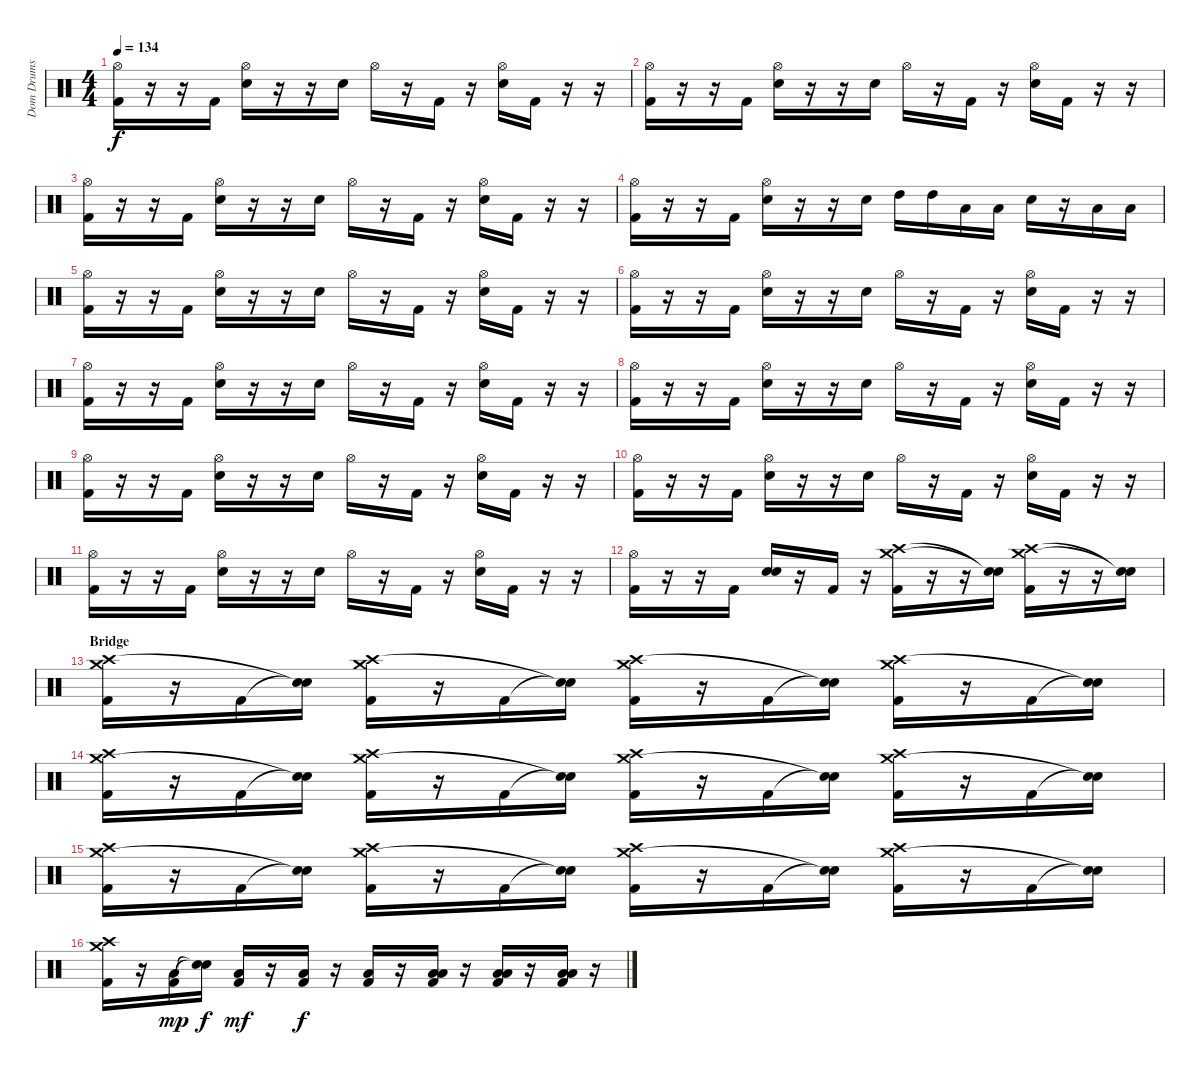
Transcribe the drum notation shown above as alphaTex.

\track ("Dom Drums" "Dom Drums") {instrument percussion}
\staff {score}
\articulation defaults
\ts (4 4)
\tempo 134
\clef neutral
\ks c
("Hi-Hat (open)" "Kick (hit) 2").16{dy f} r.16 r.16 "Kick (hit) 2".16 ("Hi-Hat (open)" "Electric Snare (hit)").16 r.16 r.16 "Electric Snare (hit)".16 "Hi-Hat (open)".16 r.16 "Kick (hit) 2".16 r.16 ("Hi-Hat (open)" "Electric Snare (hit)").16 "Kick (hit) 2".16 r.16 r.16 |
("Hi-Hat (open)" "Kick (hit) 2").16 r.16 r.16 "Kick (hit) 2".16 ("Hi-Hat (open)" "Electric Snare (hit)").16 r.16 r.16 "Electric Snare (hit)".16 "Hi-Hat (open)".16 r.16 "Kick (hit) 2".16 r.16 ("Hi-Hat (open)" "Electric Snare (hit)").16 "Kick (hit) 2".16 r.16 r.16 |
("Hi-Hat (open)" "Kick (hit) 2").16 r.16 r.16 "Kick (hit) 2".16 ("Hi-Hat (open)" "Electric Snare (hit)").16 r.16 r.16 "Electric Snare (hit)".16 "Hi-Hat (open)".16 r.16 "Kick (hit) 2".16 r.16 ("Hi-Hat (open)" "Electric Snare (hit)").16 "Kick (hit) 2".16 r.16 r.16 |
("Hi-Hat (open)" "Kick (hit) 2").16 r.16 r.16 "Kick (hit) 2".16 ("Hi-Hat (open)" "Electric Snare (hit)").16 r.16 r.16 "Electric Snare (hit)".16 "High Tom (hit)".16 "High Tom (hit)".16 "Low Tom (hit)".16 "Low Tom (hit)".16 "Electric Snare (hit)".16 r.16 "Low Tom (hit)".16 "Low Tom (hit)".16 |
("Hi-Hat (open)" "Kick (hit) 2").16 r.16 r.16 "Kick (hit) 2".16 ("Hi-Hat (open)" "Electric Snare (hit)").16 r.16 r.16 "Electric Snare (hit)".16 "Hi-Hat (open)".16 r.16 "Kick (hit) 2".16 r.16 ("Hi-Hat (open)" "Electric Snare (hit)").16 "Kick (hit) 2".16 r.16 r.16 |
("Hi-Hat (open)" "Kick (hit) 2").16 r.16 r.16 "Kick (hit) 2".16 ("Hi-Hat (open)" "Electric Snare (hit)").16 r.16 r.16 "Electric Snare (hit)".16 "Hi-Hat (open)".16 r.16 "Kick (hit) 2".16 r.16 ("Hi-Hat (open)" "Electric Snare (hit)").16 "Kick (hit) 2".16 r.16 r.16 |
("Hi-Hat (open)" "Kick (hit) 2").16 r.16 r.16 "Kick (hit) 2".16 ("Hi-Hat (open)" "Electric Snare (hit)").16 r.16 r.16 "Electric Snare (hit)".16 "Hi-Hat (open)".16 r.16 "Kick (hit) 2".16 r.16 ("Hi-Hat (open)" "Electric Snare (hit)").16 "Kick (hit) 2".16 r.16 r.16 |
("Hi-Hat (open)" "Kick (hit) 2").16 r.16 r.16 "Kick (hit) 2".16 ("Hi-Hat (open)" "Electric Snare (hit)").16 r.16 r.16 "Electric Snare (hit)".16 "Hi-Hat (open)".16 r.16 "Kick (hit) 2".16 r.16 ("Hi-Hat (open)" "Electric Snare (hit)").16 "Kick (hit) 2".16 r.16 r.16 |
("Hi-Hat (open)" "Kick (hit) 2").16 r.16 r.16 "Kick (hit) 2".16 ("Hi-Hat (open)" "Electric Snare (hit)").16 r.16 r.16 "Electric Snare (hit)".16 "Hi-Hat (open)".16 r.16 "Kick (hit) 2".16 r.16 ("Hi-Hat (open)" "Electric Snare (hit)").16 "Kick (hit) 2".16 r.16 r.16 |
("Hi-Hat (open)" "Kick (hit) 2").16 r.16 r.16 "Kick (hit) 2".16 ("Hi-Hat (open)" "Electric Snare (hit)").16 r.16 r.16 "Electric Snare (hit)".16 "Hi-Hat (open)".16 r.16 "Kick (hit) 2".16 r.16 ("Hi-Hat (open)" "Electric Snare (hit)").16 "Kick (hit) 2".16 r.16 r.16 |
("Hi-Hat (open)" "Kick (hit) 2").16 r.16 r.16 "Kick (hit) 2".16 ("Hi-Hat (open)" "Electric Snare (hit)").16 r.16 r.16 "Electric Snare (hit)".16 "Hi-Hat (open)".16 r.16 "Kick (hit) 2".16 r.16 ("Hi-Hat (open)" "Electric Snare (hit)").16 "Kick (hit) 2".16 r.16 r.16 |
("Hi-Hat (open)" "Kick (hit) 2").16 r.16 r.16 "Kick (hit) 2".16 ("Electric Snare (hit)" "Electric Snare (hit)").16 r.16 "Kick (hit) 2".16 r.16 ("Crash medium (hit)" "Crash high (hit)" "Kick (hit) 2").16 r.16 r.16 ("Snare (hit)"{t} "Snare (hit)"{t}).16 ("Crash medium (hit)" "Crash high (hit)" "Kick (hit) 2").16 r.16 r.16 ("Snare (hit)"{t} "Snare (hit)"{t}).16 |
\section ("" "Bridge")
("Crash medium (hit)" "Crash high (hit)" "Kick (hit) 2").16 r.16 "Kick (hit) 2".16 ("Snare (hit)"{t} "Snare (hit)"{t}).16 ("Crash medium (hit)" "Crash high (hit)" "Kick (hit) 2").16 r.16 "Kick (hit) 2".16 ("Snare (hit)"{t} "Snare (hit)"{t}).16 ("Crash medium (hit)" "Crash high (hit)" "Kick (hit) 2").16 r.16 "Kick (hit) 2".16 ("Snare (hit)"{t} "Snare (hit)"{t}).16 ("Crash medium (hit)" "Crash high (hit)" "Kick (hit) 2").16 r.16 "Kick (hit) 2".16 ("Snare (hit)"{t} "Snare (hit)"{t}).16 |
("Crash high (hit)" "Crash medium (hit)" "Kick (hit) 2").16 r.16 "Kick (hit) 2".16 ("Snare (hit)"{t} "Snare (hit)"{t}).16 ("Crash high (hit)" "Crash medium (hit)" "Kick (hit) 2").16 r.16 "Kick (hit) 2".16 ("Snare (hit)"{t} "Snare (hit)"{t}).16 ("Crash high (hit)" "Crash medium (hit)" "Kick (hit) 2").16 r.16 "Kick (hit) 2".16 ("Snare (hit)"{t} "Snare (hit)"{t}).16 ("Crash high (hit)" "Crash medium (hit)" "Kick (hit) 2").16 r.16 "Kick (hit) 2".16 ("Snare (hit)"{t} "Snare (hit)"{t}).16 |
("Crash high (hit)" "Crash medium (hit)" "Kick (hit) 2").16 r.16 "Kick (hit) 2".16 ("Snare (hit)"{t} "Snare (hit)"{t}).16 ("Crash high (hit)" "Crash medium (hit)" "Kick (hit) 2").16 r.16 "Kick (hit) 2".16 ("Snare (hit)"{t} "Snare (hit)"{t}).16 ("Crash high (hit)" "Crash medium (hit)" "Kick (hit) 2").16 r.16 "Kick (hit) 2".16 ("Snare (hit)"{t} "Snare (hit)"{t}).16 ("Crash high (hit)" "Crash medium (hit)" "Kick (hit) 2").16 r.16 "Kick (hit) 2".16 ("Snare (hit)"{t} "Snare (hit)"{t}).16 |
("Crash high (hit)" "Crash medium (hit)" "Kick (hit) 2").16 r.16 ("Low Tom (hit)" "Kick (hit) 2").16{dy mp} ("Snare (hit)"{t} "Snare (hit)"{t}).16{dy f} ("Low Tom (hit)" "Kick (hit) 2").16{dy mf} r.16 ("Low Tom (hit)" "Kick (hit) 2").16{dy f} r.16 ("Low Tom (hit)" "Kick (hit) 2").16 r.16 ("Low Tom (hit)" "Low Floor Tom (hit)" "Kick (hit) 2").16 r.16 ("Low Tom (hit)" "Low Floor Tom (hit)" "Kick (hit) 2").16 r.16 ("Low Tom (hit)" "Low Floor Tom (hit)" "Kick (hit) 2").16 r.16
